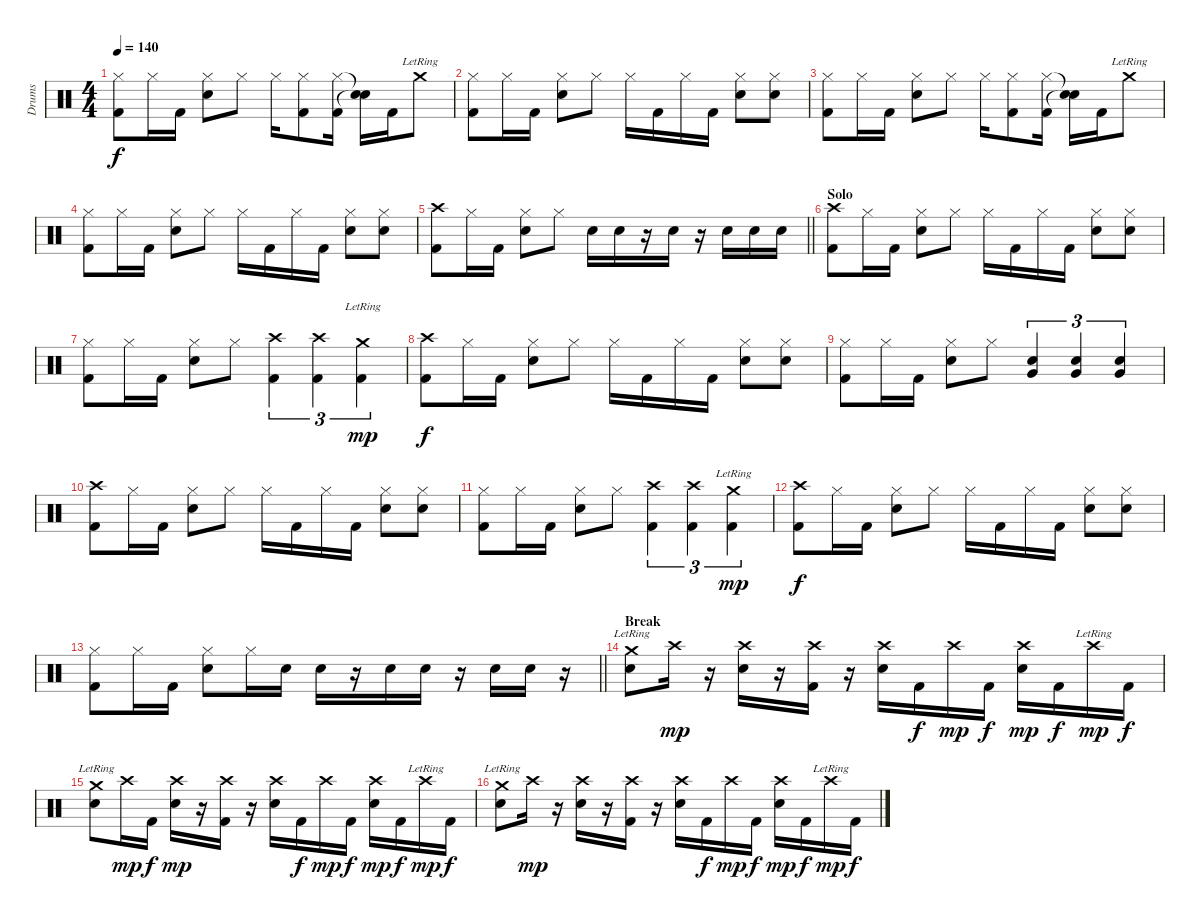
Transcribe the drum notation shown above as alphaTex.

\track ("Drums" "Drums") {instrument percussion}
\staff {score}
\articulation defaults
\ts (4 4)
\tempo 140
\clef neutral
\ks c
("Hi-Hat (closed)" "Kick (hit) 2").8{dy f} "Hi-Hat (closed)".16 "Kick (hit) 2".16 ("Hi-Hat (closed)" "Snare (hit) 2").8 "Hi-Hat (closed)".8 "Hi-Hat (closed)".16 ("Hi-Hat (closed)" "Kick (hit) 2").8 ("Hi-Hat (closed)" "Kick (hit) 2").16 ("Snare (hit)"{t} "Snare (hit)"{t}).16 "Kick (hit) 2".16 "Crash medium (hit)"{lr}.8 |
("Hi-Hat (closed)" "Kick (hit) 2").8 "Hi-Hat (closed)".16 "Kick (hit) 2".16 ("Hi-Hat (closed)" "Snare (hit) 2").8 "Hi-Hat (closed)".8 "Hi-Hat (closed)".16 "Kick (hit) 2".16 "Hi-Hat (closed)".16 "Kick (hit) 2".16 ("Hi-Hat (closed)" "Snare (hit) 2").8 ("Hi-Hat (closed)" "Snare (hit) 2").8 |
("Hi-Hat (closed)" "Kick (hit) 2").8 "Hi-Hat (closed)".16 "Kick (hit) 2".16 ("Hi-Hat (closed)" "Snare (hit) 2").8 "Hi-Hat (closed)".8 "Hi-Hat (closed)".16 ("Hi-Hat (closed)" "Kick (hit) 2").8 ("Hi-Hat (closed)" "Kick (hit) 2").16 ("Snare (hit)"{t} "Snare (hit)"{t}).16 "Kick (hit) 2".16 "Crash medium (hit)"{lr}.8 |
("Hi-Hat (closed)" "Kick (hit) 2").8 "Hi-Hat (closed)".16 "Kick (hit) 2".16 ("Hi-Hat (closed)" "Snare (hit) 2").8 "Hi-Hat (closed)".8 "Hi-Hat (closed)".16 "Kick (hit) 2".16 "Hi-Hat (closed)".16 "Kick (hit) 2".16 ("Hi-Hat (closed)" "Snare (hit) 2").8 ("Hi-Hat (closed)" "Snare (hit) 2").8 |
\barLineRight lightlight
("Crash high (hit)" "Kick (hit) 2").8 "Hi-Hat (closed)".16 "Kick (hit) 2".16 ("Hi-Hat (closed)" "Snare (hit) 2").8 "Hi-Hat (closed)".8 "Snare (hit) 2".16 "Snare (hit) 2".16 r.16 "Snare (hit) 2".16 r.16 "Snare (hit) 2".16 "Snare (hit) 2".16 "Snare (hit) 2".16 |
\section ("" "Solo")
("Crash high (hit)" "Kick (hit) 2").8 "Hi-Hat (closed)".16 "Kick (hit) 2".16 ("Hi-Hat (closed)" "Snare (hit) 2").8 "Hi-Hat (closed)".8 "Hi-Hat (closed)".16 "Kick (hit) 2".16 "Hi-Hat (closed)".16 "Kick (hit) 2".16 ("Hi-Hat (closed)" "Snare (hit) 2").8 ("Hi-Hat (closed)" "Snare (hit) 2").8 |
("Hi-Hat (closed)" "Kick (hit) 2").8 "Hi-Hat (closed)".16 "Kick (hit) 2".16 ("Hi-Hat (closed)" "Snare (hit) 2").8 "Hi-Hat (closed)".8 ("Crash high (hit)" "Kick (hit) 2").4{tu (3 2)} ("Crash high (hit)" "Kick (hit) 2").4{tu (3 2)} ("Crash medium (hit)"{lr} "Kick (hit) 2").4{tu (3 2) dy mp} |
("Crash high (hit)" "Kick (hit) 2").8{dy f} "Hi-Hat (closed)".16 "Kick (hit) 2".16 ("Hi-Hat (closed)" "Snare (hit) 2").8 "Hi-Hat (closed)".8 "Hi-Hat (closed)".16 "Kick (hit) 2".16 "Hi-Hat (closed)".16 "Kick (hit) 2".16 ("Hi-Hat (closed)" "Snare (hit) 2").8 ("Hi-Hat (closed)" "Snare (hit) 2").8 |
("Hi-Hat (closed)" "Kick (hit) 2").8 "Hi-Hat (closed)".16 "Kick (hit) 2".16 ("Hi-Hat (closed)" "Snare (hit) 2").8 "Hi-Hat (closed)".8 ("Snare (hit) 2" "Very Low Tom (hit)").4{tu (3 2)} ("Snare (hit) 2" "Very Low Tom (hit)").4{tu (3 2)} ("Snare (hit) 2" "Very Low Tom (hit)").4{tu (3 2)} |
("Crash high (hit)" "Kick (hit) 2").8 "Hi-Hat (closed)".16 "Kick (hit) 2".16 ("Hi-Hat (closed)" "Snare (hit) 2").8 "Hi-Hat (closed)".8 "Hi-Hat (closed)".16 "Kick (hit) 2".16 "Hi-Hat (closed)".16 "Kick (hit) 2".16 ("Hi-Hat (closed)" "Snare (hit) 2").8 ("Hi-Hat (closed)" "Snare (hit) 2").8 |
("Hi-Hat (closed)" "Kick (hit) 2").8 "Hi-Hat (closed)".16 "Kick (hit) 2".16 ("Hi-Hat (closed)" "Snare (hit) 2").8 "Hi-Hat (closed)".8 ("Crash high (hit)" "Kick (hit) 2").4{tu (3 2)} ("Crash high (hit)" "Kick (hit) 2").4{tu (3 2)} ("Crash medium (hit)"{lr} "Kick (hit) 2").4{tu (3 2) dy mp} |
("Crash high (hit)" "Kick (hit) 2").8{dy f} "Hi-Hat (closed)".16 "Kick (hit) 2".16 ("Hi-Hat (closed)" "Snare (hit) 2").8 "Hi-Hat (closed)".8 "Hi-Hat (closed)".16 "Kick (hit) 2".16 "Hi-Hat (closed)".16 "Kick (hit) 2".16 ("Hi-Hat (closed)" "Snare (hit) 2").8 ("Hi-Hat (closed)" "Snare (hit) 2").8 |
\barLineRight lightlight
("Hi-Hat (closed)" "Kick (hit) 2").8 "Hi-Hat (closed)".16 "Kick (hit) 2".16 ("Hi-Hat (closed)" "Snare (hit) 2").8 "Hi-Hat (closed)".16 "Snare (hit) 2".16 "Snare (hit) 2".16 r.16 "Snare (hit) 2".16 "Snare (hit) 2".16 r.16 "Snare (hit) 2".16 "Snare (hit) 2".16 r.16 |
\section ("" "Break")
("Crash medium (hit)"{lr} "Snare (hit) 2").8 "Crash high (hit)".16{dy mp} r.16 ("Crash high (hit)" "Snare (hit) 2").16 r.16 ("Crash high (hit)" "Kick (hit) 2").16 r.16 ("Crash high (hit)" "Snare (hit) 2").16 "Kick (hit) 2".16{dy f} "Crash high (hit)".16{dy mp} "Kick (hit) 2".16{dy f} ("Crash high (hit)" "Snare (hit) 2").16{dy mp} "Kick (hit) 2".16{dy f} "Crash high (hit)"{lr}.16{dy mp} "Kick (hit) 2".16{dy f} |
("Crash medium (hit)"{lr} "Snare (hit) 2").8 "Crash high (hit)".16{dy mp} "Kick (hit) 2".16{dy f} ("Crash high (hit)" "Snare (hit) 2").16{dy mp} r.16 ("Crash high (hit)" "Kick (hit) 2").16 r.16 ("Crash high (hit)" "Snare (hit) 2").16 "Kick (hit) 2".16{dy f} "Crash high (hit)".16{dy mp} "Kick (hit) 2".16{dy f} ("Crash high (hit)" "Snare (hit) 2").16{dy mp} "Kick (hit) 2".16{dy f} "Crash high (hit)"{lr}.16{dy mp} "Kick (hit) 2".16{dy f} |
("Crash medium (hit)"{lr} "Snare (hit) 2").8 "Crash high (hit)".16{dy mp} r.16 ("Crash high (hit)" "Snare (hit) 2").16 r.16 ("Crash high (hit)" "Kick (hit) 2").16 r.16 ("Crash high (hit)" "Snare (hit) 2").16 "Kick (hit) 2".16{dy f} "Crash high (hit)".16{dy mp} "Kick (hit) 2".16{dy f} ("Crash high (hit)" "Snare (hit) 2").16{dy mp} "Kick (hit) 2".16{dy f} "Crash high (hit)"{lr}.16{dy mp} "Kick (hit) 2".16{dy f}
